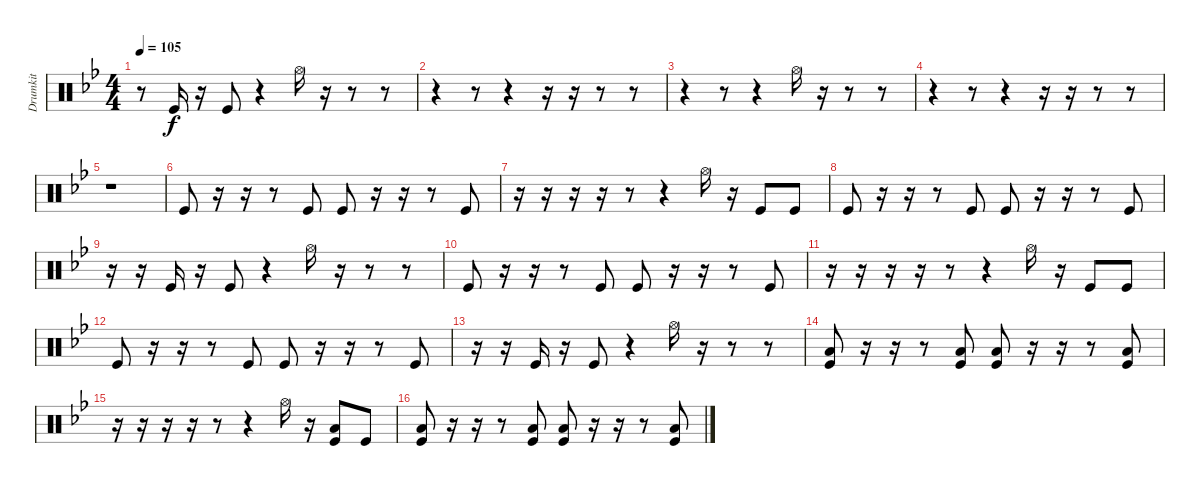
\track ("Drumkit" "Drumkit") {instrument percussion}
\staff {score}
\articulation defaults
\ts (4 4)
\tempo 105
\clef neutral
\ks gminor
r.8{dy f} "Kick (hit)".16 r.16 "Kick (hit)".8 r.4 "Hi-Hat (open)".16 r.16 r.8 r.8 |
r.4 r.8 r.4 r.16 r.16 r.8 r.8 |
r.4 r.8 r.4 "Hi-Hat (open)".16 r.16 r.8 r.8 |
r.4 r.8 r.4 r.16 r.16 r.8 r.8 |
r.1 |
"Kick (hit)".8 r.16 r.16 r.8 "Kick (hit)".8 "Kick (hit)".8 r.16 r.16 r.8 "Kick (hit)".8 |
r.16 r.16 r.16 r.16 r.8 r.4 "Hi-Hat (open)".16 r.16 "Kick (hit)".8 "Kick (hit)".8 |
"Kick (hit)".8 r.16 r.16 r.8 "Kick (hit)".8 "Kick (hit)".8 r.16 r.16 r.8 "Kick (hit)".8 |
r.16 r.16 "Kick (hit)".16 r.16 "Kick (hit)".8 r.4 "Hi-Hat (open)".16 r.16 r.8 r.8 |
"Kick (hit)".8 r.16 r.16 r.8 "Kick (hit)".8 "Kick (hit)".8 r.16 r.16 r.8 "Kick (hit)".8 |
r.16 r.16 r.16 r.16 r.8 r.4 "Hi-Hat (open)".16 r.16 "Kick (hit)".8 "Kick (hit)".8 |
"Kick (hit)".8 r.16 r.16 r.8 "Kick (hit)".8 "Kick (hit)".8 r.16 r.16 r.8 "Kick (hit)".8 |
r.16 r.16 "Kick (hit)".16 r.16 "Kick (hit)".8 r.4 "Hi-Hat (open)".16 r.16 r.8 r.8 |
("Kick (hit)" "Low Floor Tom (hit)").8 r.16 r.16 r.8 ("Kick (hit)" "Low Floor Tom (hit)").8 ("Kick (hit)" "Low Floor Tom (hit)").8 r.16 r.16 r.8 ("Kick (hit)" "Low Floor Tom (hit)").8 |
r.16 r.16 r.16 r.16 r.8 r.4 "Hi-Hat (open)".16 r.16 ("Kick (hit)" "Low Floor Tom (hit)").8 "Kick (hit)".8 |
("Kick (hit)" "Low Floor Tom (hit)").8 r.16 r.16 r.8 ("Kick (hit)" "Low Floor Tom (hit)").8 ("Kick (hit)" "Low Floor Tom (hit)").8 r.16 r.16 r.8 ("Kick (hit)" "Low Floor Tom (hit)").8
